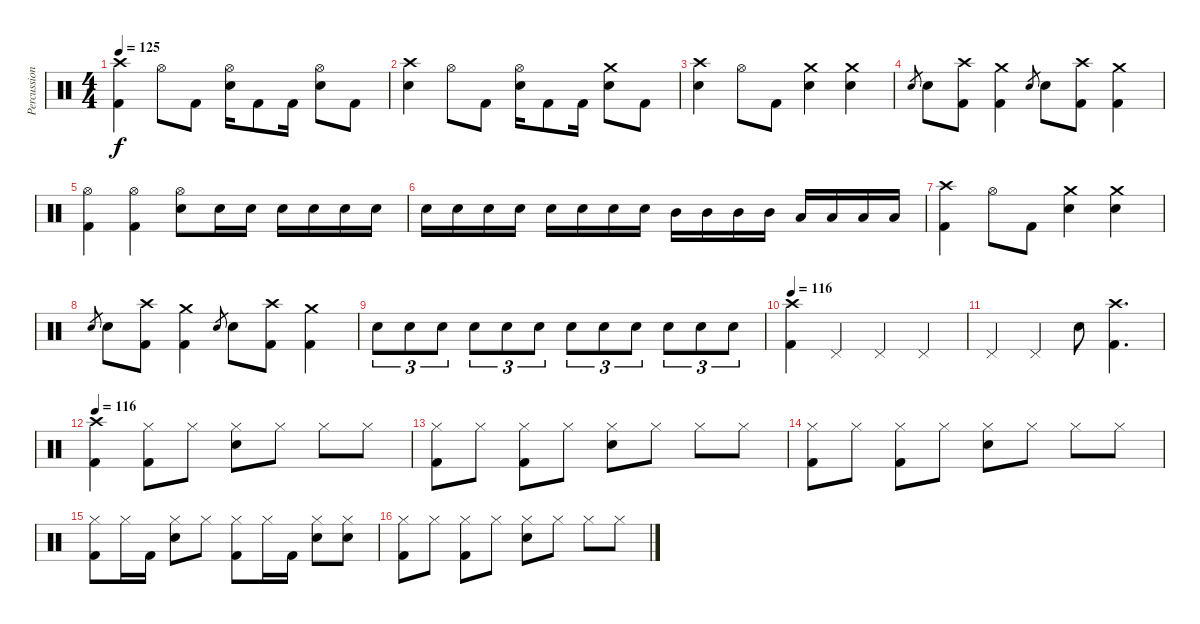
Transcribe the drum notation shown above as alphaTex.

\track ("Percussion" "Percussion") {instrument percussion}
\staff {score}
\articulation defaults
\ts (4 4)
\tempo 125
\clef neutral
\ks c
("Kick (hit) 2" "Crash high (hit)").4{dy f} "Hi-Hat (open)".8 "Kick (hit) 2".8 ("Electric Snare (hit)" "Hi-Hat (open)").16 "Kick (hit) 2".8 "Kick (hit) 2".16 ("Electric Snare (hit)" "Hi-Hat (open)").8 "Kick (hit) 2".8 |
("Electric Snare (hit)" "Crash high (hit)").4 "Hi-Hat (open)".8 "Kick (hit) 2".8 ("Electric Snare (hit)" "Hi-Hat (open)").16 "Kick (hit) 2".8 "Kick (hit) 2".16 ("Electric Snare (hit)" "Crash medium (hit)").8 "Kick (hit) 2".8 |
("Electric Snare (hit)" "Crash high (hit)").4 "Hi-Hat (open)".8 "Kick (hit) 2".8 ("Electric Snare (hit)" "Crash medium (hit)").4 ("Electric Snare (hit)" "Crash medium (hit)").4 |
"Electric Snare (hit)".8{gr} "Electric Snare (hit)".8 ("Kick (hit) 2" "Crash high (hit)").8 ("Kick (hit) 2" "Crash medium (hit)").4 "Electric Snare (hit)".8{gr} "Electric Snare (hit)".8 ("Kick (hit) 2" "Crash high (hit)").8 ("Kick (hit) 2" "Crash medium (hit)").4 |
("Kick (hit) 2" "Hi-Hat (open)").4 ("Kick (hit) 2" "Hi-Hat (open)").4 ("Electric Snare (hit)" "Hi-Hat (open)").8 "Electric Snare (hit)".16 "Electric Snare (hit)".16 "Electric Snare (hit)".16 "Electric Snare (hit)".16 "Electric Snare (hit)".16 "Electric Snare (hit)".16 |
"Electric Snare (hit)".16 "Electric Snare (hit)".16 "Electric Snare (hit)".16 "Electric Snare (hit)".16 "Electric Snare (hit)".16 "Electric Snare (hit)".16 "Electric Snare (hit)".16 "Electric Snare (hit)".16 "Mid Tom (hit)".16 "Mid Tom (hit)".16 "Mid Tom (hit)".16 "Mid Tom (hit)".16 "Low Tom (hit)".16 "Low Tom (hit)".16 "Low Tom (hit)".16 "Low Tom (hit)".16 |
("Kick (hit) 2" "Crash high (hit)").4 "Hi-Hat (open)".8 "Kick (hit) 2".8 ("Electric Snare (hit)" "Crash medium (hit)").4 ("Electric Snare (hit)" "Crash medium (hit)").4 |
"Electric Snare (hit)".8{gr} "Electric Snare (hit)".8 ("Kick (hit) 2" "Crash high (hit)").8 ("Kick (hit) 2" "Crash medium (hit)").4 "Electric Snare (hit)".8{gr} "Electric Snare (hit)".8 ("Kick (hit) 2" "Crash high (hit)").8 ("Kick (hit) 2" "Crash medium (hit)").4 |
"Electric Snare (hit)".8{tu (3 2)} "Electric Snare (hit)".8{tu (3 2)} "Electric Snare (hit)".8{tu (3 2)} "Electric Snare (hit)".8{tu (3 2)} "Electric Snare (hit)".8{tu (3 2)} "Electric Snare (hit)".8{tu (3 2)} "Electric Snare (hit)".8{tu (3 2)} "Electric Snare (hit)".8{tu (3 2)} "Electric Snare (hit)".8{tu (3 2)} "Electric Snare (hit)".8{tu (3 2)} "Electric Snare (hit)".8{tu (3 2)} "Electric Snare (hit)".8{tu (3 2)} |
\tempo 116
("Kick (hit) 2" "Crash high (hit)").4 "Pedal Hi-Hat (hit)".4 "Pedal Hi-Hat (hit)".4 "Pedal Hi-Hat (hit)".4 |
"Pedal Hi-Hat (hit)".4 "Pedal Hi-Hat (hit)".4 "Electric Snare (hit)".8 ("Kick (hit) 2" "Crash high (hit)").4{d} |
\tempo 116
("Kick (hit) 2" "Crash high (hit)").4 ("Kick (hit) 2" "Hi-Hat (closed)").8 "Hi-Hat (closed)".8 ("Electric Snare (hit)" "Hi-Hat (closed)").8 "Hi-Hat (closed)".8 "Hi-Hat (closed)".8 "Hi-Hat (closed)".8 |
("Kick (hit) 2" "Hi-Hat (closed)").8 "Hi-Hat (closed)".8 ("Kick (hit) 2" "Hi-Hat (closed)").8 "Hi-Hat (closed)".8 ("Electric Snare (hit)" "Hi-Hat (closed)").8 "Hi-Hat (closed)".8 "Hi-Hat (closed)".8 "Hi-Hat (closed)".8 |
("Kick (hit) 2" "Hi-Hat (closed)").8 "Hi-Hat (closed)".8 ("Kick (hit) 2" "Hi-Hat (closed)").8 "Hi-Hat (closed)".8 ("Electric Snare (hit)" "Hi-Hat (closed)").8 "Hi-Hat (closed)".8 "Hi-Hat (closed)".8 "Hi-Hat (closed)".8 |
("Kick (hit) 2" "Hi-Hat (closed)").8 "Hi-Hat (closed)".16 "Kick (hit) 2".16 ("Electric Snare (hit)" "Hi-Hat (closed)").8 "Hi-Hat (closed)".8 ("Kick (hit) 2" "Hi-Hat (closed)").8 "Hi-Hat (closed)".16 "Kick (hit) 2".16 ("Electric Snare (hit)" "Hi-Hat (closed)").8 ("Electric Snare (hit)" "Hi-Hat (closed)").8 |
("Kick (hit) 2" "Hi-Hat (closed)").8 "Hi-Hat (closed)".8 ("Kick (hit) 2" "Hi-Hat (closed)").8 "Hi-Hat (closed)".8 ("Electric Snare (hit)" "Hi-Hat (closed)").8 "Hi-Hat (closed)".8 "Hi-Hat (closed)".8 "Hi-Hat (closed)".8
